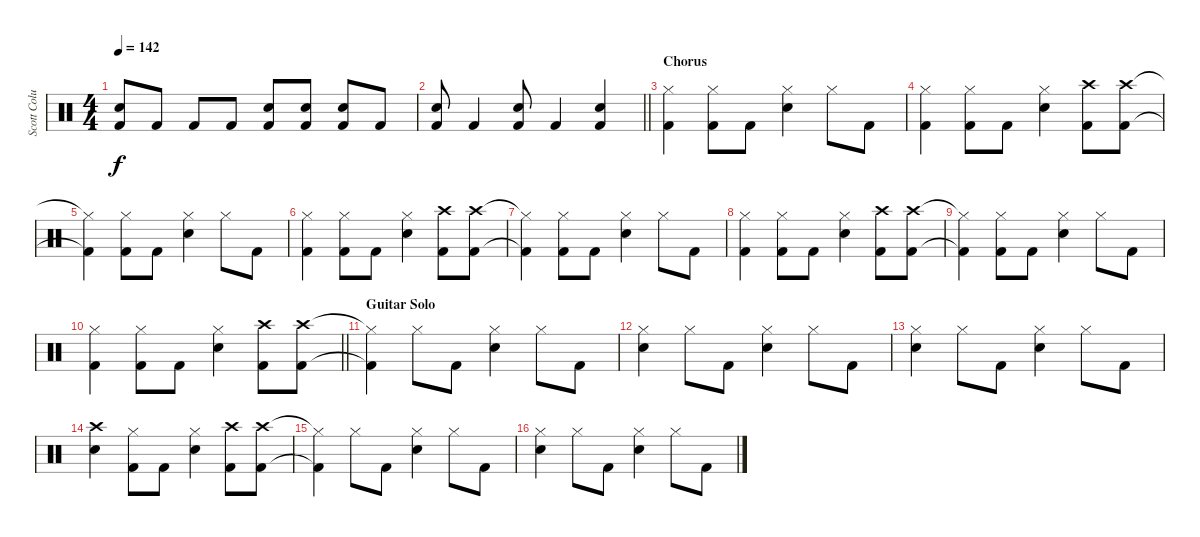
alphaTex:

\track ("Scott Columbus" "Scott Colu") {instrument percussion}
\staff {score}
\articulation defaults
\ts (4 4)
\tempo 142
\clef neutral
\ks c
("Snare (hit) 2" "Kick (hit) 2").8{dy f} "Kick (hit) 2".8 "Kick (hit) 2".8 "Kick (hit) 2".8 ("Snare (hit) 2" "Kick (hit) 2").8 ("Snare (hit) 2" "Kick (hit) 2").8 ("Snare (hit) 2" "Kick (hit) 2").8 "Kick (hit) 2".8 |
\barLineRight lightlight
("Snare (hit) 2" "Kick (hit) 2").8 "Kick (hit) 2".4 ("Snare (hit) 2" "Kick (hit) 2").8 "Kick (hit) 2".4 ("Snare (hit) 2" "Kick (hit) 2").4 |
\section ("" "Chorus")
("Hi-Hat (closed)" "Kick (hit) 2").4 ("Hi-Hat (closed)" "Kick (hit) 2").8 "Kick (hit) 2".8 ("Hi-Hat (closed)" "Snare (hit) 2").4 "Hi-Hat (closed)".8 "Kick (hit) 2".8 |
("Hi-Hat (closed)" "Kick (hit) 2").4 ("Hi-Hat (closed)" "Kick (hit) 2").8 "Kick (hit) 2".8 ("Hi-Hat (closed)" "Snare (hit) 2").4 ("Crash high (hit)" "Kick (hit) 2").8 ("Crash high (hit)" "Kick (hit) 2").8 |
("Hi-Hat (closed)"{t} "Kick (hit) 2"{t}).4 ("Hi-Hat (closed)" "Kick (hit) 2").8 "Kick (hit) 2".8 ("Hi-Hat (closed)" "Snare (hit) 2").4 "Hi-Hat (closed)".8 "Kick (hit) 2".8 |
("Hi-Hat (closed)" "Kick (hit) 2").4 ("Hi-Hat (closed)" "Kick (hit) 2").8 "Kick (hit) 2".8 ("Hi-Hat (closed)" "Snare (hit) 2").4 ("Crash high (hit)" "Kick (hit) 2").8 ("Crash high (hit)" "Kick (hit) 2").8 |
("Hi-Hat (closed)"{t} "Kick (hit) 2"{t}).4 ("Hi-Hat (closed)" "Kick (hit) 2").8 "Kick (hit) 2".8 ("Hi-Hat (closed)" "Snare (hit) 2").4 "Hi-Hat (closed)".8 "Kick (hit) 2".8 |
("Hi-Hat (closed)" "Kick (hit) 2").4 ("Hi-Hat (closed)" "Kick (hit) 2").8 "Kick (hit) 2".8 ("Hi-Hat (closed)" "Snare (hit) 2").4 ("Crash high (hit)" "Kick (hit) 2").8 ("Crash high (hit)" "Kick (hit) 2").8 |
("Hi-Hat (closed)"{t} "Kick (hit) 2"{t}).4 ("Hi-Hat (closed)" "Kick (hit) 2").8 "Kick (hit) 2".8 ("Hi-Hat (closed)" "Snare (hit) 2").4 "Hi-Hat (closed)".8 "Kick (hit) 2".8 |
\barLineRight lightlight
("Hi-Hat (closed)" "Kick (hit) 2").4 ("Hi-Hat (closed)" "Kick (hit) 2").8 "Kick (hit) 2".8 ("Hi-Hat (closed)" "Snare (hit) 2").4 ("Crash high (hit)" "Kick (hit) 2").8 ("Crash high (hit)" "Kick (hit) 2").8 |
\section ("" "Guitar Solo")
("Hi-Hat (closed)"{t} "Kick (hit) 2"{t}).4 "Hi-Hat (closed)".8 "Kick (hit) 2".8 ("Hi-Hat (closed)" "Snare (hit) 2").4 "Hi-Hat (closed)".8 "Kick (hit) 2".8 |
("Hi-Hat (closed)" "Snare (hit) 2").4 "Hi-Hat (closed)".8 "Kick (hit) 2".8 ("Hi-Hat (closed)" "Snare (hit) 2").4 "Hi-Hat (closed)".8 "Kick (hit) 2".8 |
("Hi-Hat (closed)" "Snare (hit) 2").4 "Hi-Hat (closed)".8 "Kick (hit) 2".8 ("Hi-Hat (closed)" "Snare (hit) 2").4 "Hi-Hat (closed)".8 "Kick (hit) 2".8 |
("Crash high (hit)" "Snare (hit) 2").4 ("Hi-Hat (closed)" "Kick (hit) 2").8 "Kick (hit) 2".8 ("Hi-Hat (closed)" "Snare (hit) 2").4 ("Crash high (hit)" "Kick (hit) 2").8 ("Crash high (hit)" "Kick (hit) 2").8 |
("Hi-Hat (closed)"{t} "Kick (hit) 2"{t}).4 "Hi-Hat (closed)".8 "Kick (hit) 2".8 ("Hi-Hat (closed)" "Snare (hit) 2").4 "Hi-Hat (closed)".8 "Kick (hit) 2".8 |
("Hi-Hat (closed)" "Snare (hit) 2").4 "Hi-Hat (closed)".8 "Kick (hit) 2".8 ("Hi-Hat (closed)" "Snare (hit) 2").4 "Hi-Hat (closed)".8 "Kick (hit) 2".8
